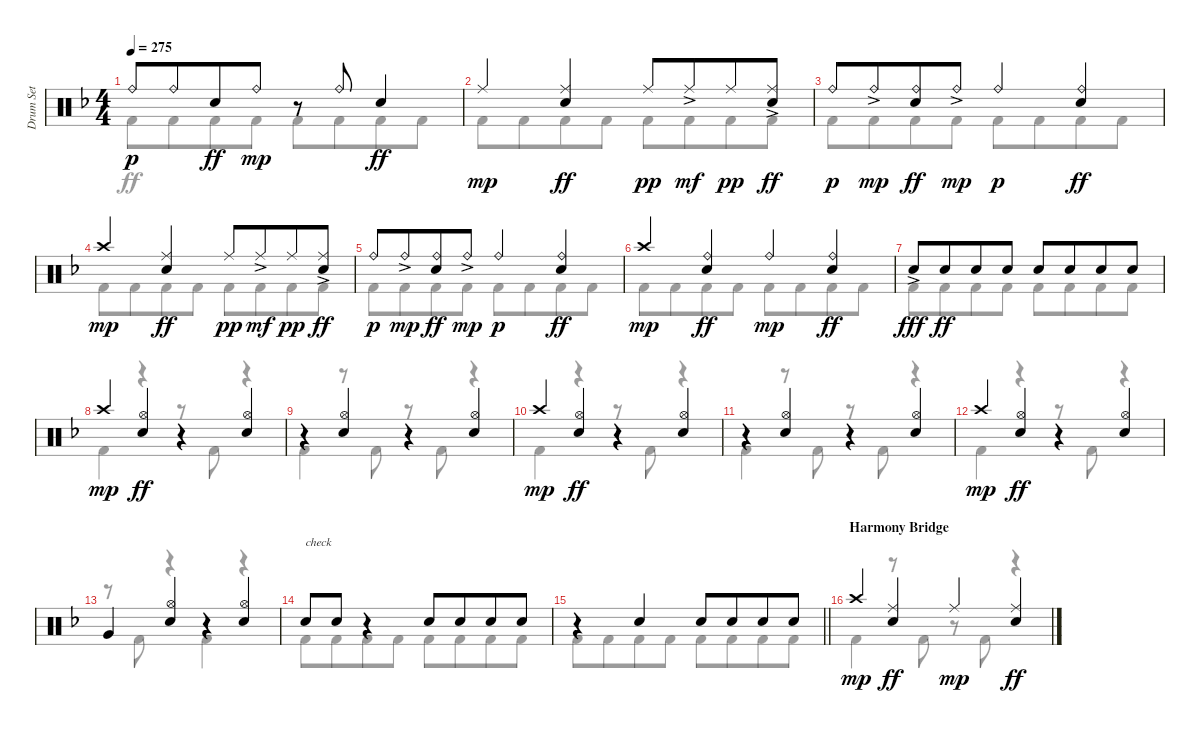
\track ("Drum Set" "Drum Set") {instrument percussion}
\staff {score}
\articulation defaults
\voice
\ts (4 4)
\tempo 275
\clef neutral
\ks dminor "Ride (bell)".8{dy p} "Ride (bell)".8{beam merge} "Electric Snare (hit)".8{dy ff} "Ride (bell)".8{dy mp}
r.8 "Ride (bell)".8 "Electric Snare (hit)".4{dy ff} |
"Ride (middle)".4{dy mp} ("Ride (middle)" "Electric Snare (hit)").4{dy ff} "Ride (middle)".8{dy pp} "Ride (middle)"{ac}.8{dy mf beam merge} "Ride (middle)".8{dy pp} ("Ride (middle)"{ac} "Electric Snare (hit)").8{dy ff} |
"Ride (bell)".8{dy p} "Ride (bell)"{ac}.8{dy mp beam merge} ("Ride (bell)" "Electric Snare (hit)").8{dy ff} "Ride (bell)"{ac}.8{dy mp} "Ride (bell)".4{dy p} ("Ride (bell)" "Electric Snare (hit)").4{dy ff} |
"Crash high (hit)".4{dy mp} ("Ride (middle)" "Electric Snare (hit)").4{dy ff} "Ride (middle)".8{dy pp} "Ride (middle)"{ac}.8{dy mf beam merge} "Ride (middle)".8{dy pp} ("Ride (middle)"{ac} "Electric Snare (hit)").8{dy ff} |
"Ride (bell)".8{dy p} "Ride (bell)"{ac}.8{dy mp beam merge} ("Ride (bell)" "Electric Snare (hit)").8{dy ff} "Ride (bell)"{ac}.8{dy mp} "Ride (bell)".4{dy p} ("Ride (bell)" "Electric Snare (hit)").4{dy ff} |
"Crash high (hit)".4{dy mp} ("Ride (bell)" "Electric Snare (hit)").4{dy ff} "Ride (bell)".4{dy mp} ("Ride (bell)" "Electric Snare (hit)").4{dy ff} |
"Electric Snare (hit)"{ac}.8{dy fff} "Electric Snare (hit)".8{dy ff beam merge} "Electric Snare (hit)".8 "Electric Snare (hit)".8 "Electric Snare (hit)".8 "Electric Snare (hit)".8{beam merge} "Electric Snare (hit)".8 "Electric Snare (hit)".8 |
"Crash high (hit)".4{dy mp} ("Hi-Hat (open)" "Electric Snare (hit)").4{dy ff} r.4 ("Hi-Hat (open)" "Electric Snare (hit)").4 |
r.4 ("Hi-Hat (open)" "Electric Snare (hit)").4 r.4 ("Hi-Hat (open)" "Electric Snare (hit)").4 |
"Crash high (hit)".4{dy mp} ("Hi-Hat (open)" "Electric Snare (hit)").4{dy ff} r.4 ("Hi-Hat (open)" "Electric Snare (hit)").4 |
r.4 ("Hi-Hat (open)" "Electric Snare (hit)").4 r.4 ("Hi-Hat (open)" "Electric Snare (hit)").4 |
"Crash high (hit)".4{dy mp} ("Hi-Hat (open)" "Electric Snare (hit)").4{dy ff} r.4 ("Hi-Hat (open)" "Electric Snare (hit)").4 |
"Very Low Tom (hit)".4 ("Hi-Hat (open)" "Electric Snare (hit)").4 r.4 ("Hi-Hat (open)" "Electric Snare (hit)").4 |
"Electric Snare (hit)".8{txt "check"} "Electric Snare (hit)".8 r.4 "Electric Snare (hit)".8 "Electric Snare (hit)".8{beam merge} "Electric Snare (hit)".8 "Electric Snare (hit)".8 |
\barLineRight lightlight
r.4 "Electric Snare (hit)".4 "Electric Snare (hit)".8 "Electric Snare (hit)".8{beam merge} "Electric Snare (hit)".8 "Electric Snare (hit)".8 |
\section ("" "Harmony Bridge")
"Crash high (hit)".4{dy mp} ("Ride (middle)" "Electric Snare (hit)").4{dy ff} "Ride (middle)".4{dy mp} ("Ride (middle)" "Electric Snare (hit)").4{dy ff}
\voice
\clef neutral
\ottava regular
\simile none
\ks dminor "Kick (hit) 2".8{dy ff} "Kick (hit) 2".8{beam merge} "Kick (hit) 2".8 "Kick (hit) 2".8 "Kick (hit) 2".8 "Kick (hit) 2".8{beam merge} "Kick (hit) 2".8 "Kick (hit) 2".8
|
"Kick (hit) 2".8 "Kick (hit) 2".8{beam merge} "Kick (hit) 2".8 "Kick (hit) 2".8 "Kick (hit) 2".8 "Kick (hit) 2".8{beam merge} "Kick (hit) 2".8 "Kick (hit) 2".8 |
"Kick (hit) 2".8 "Kick (hit) 2".8{beam merge} "Kick (hit) 2".8 "Kick (hit) 2".8 "Kick (hit) 2".8 "Kick (hit) 2".8{beam merge} "Kick (hit) 2".8 "Kick (hit) 2".8 |
"Kick (hit) 2".8 "Kick (hit) 2".8{beam merge} "Kick (hit) 2".8 "Kick (hit) 2".8 "Kick (hit) 2".8 "Kick (hit) 2".8{beam merge} "Kick (hit) 2".8 "Kick (hit) 2".8 |
"Kick (hit) 2".8 "Kick (hit) 2".8{beam merge} "Kick (hit) 2".8 "Kick (hit) 2".8 "Kick (hit) 2".8 "Kick (hit) 2".8{beam merge} "Kick (hit) 2".8 "Kick (hit) 2".8 |
"Kick (hit) 2".8 "Kick (hit) 2".8{beam merge} "Kick (hit) 2".8 "Kick (hit) 2".8 "Kick (hit) 2".8 "Kick (hit) 2".8{beam merge} "Kick (hit) 2".8 "Kick (hit) 2".8 |
"Kick (hit) 2".8 "Kick (hit) 2".8{beam merge} "Kick (hit) 2".8 "Kick (hit) 2".8 "Kick (hit) 2".8 "Kick (hit) 2".8{beam merge} "Kick (hit) 2".8 "Kick (hit) 2".8 |
"Kick (hit) 2".4 r.4 r.8 "Kick (hit) 2".8 r.4 |
"Kick (hit) 2".4 r.8 "Kick (hit) 2".8 r.8 "Kick (hit) 2".8 r.4 |
"Kick (hit) 2".4 r.4 r.8 "Kick (hit) 2".8 r.4 |
"Kick (hit) 2".4 r.8 "Kick (hit) 2".8 r.8 "Kick (hit) 2".8 r.4 |
"Kick (hit) 2".4 r.4 r.8 "Kick (hit) 2".8 r.4 |
r.8 "Kick (hit) 2".8 r.4 "Kick (hit) 2".4 r.4 |
"Kick (hit) 2".8 "Kick (hit) 2".8{beam merge} "Kick (hit) 2".8 "Kick (hit) 2".8 "Kick (hit) 2".8 "Kick (hit) 2".8{beam merge} "Kick (hit) 2".8 "Kick (hit) 2".8 |
\barLineRight lightlight "Kick (hit) 2".8 "Kick (hit) 2".8{beam merge} "Kick (hit) 2".8 "Kick (hit) 2".8 "Kick (hit) 2".8 "Kick (hit) 2".8{beam merge} "Kick (hit) 2".8 "Kick (hit) 2".8
|
"Kick (hit) 2".4 r.8 "Kick (hit) 2".8 r.8 "Kick (hit) 2".8 r.4
